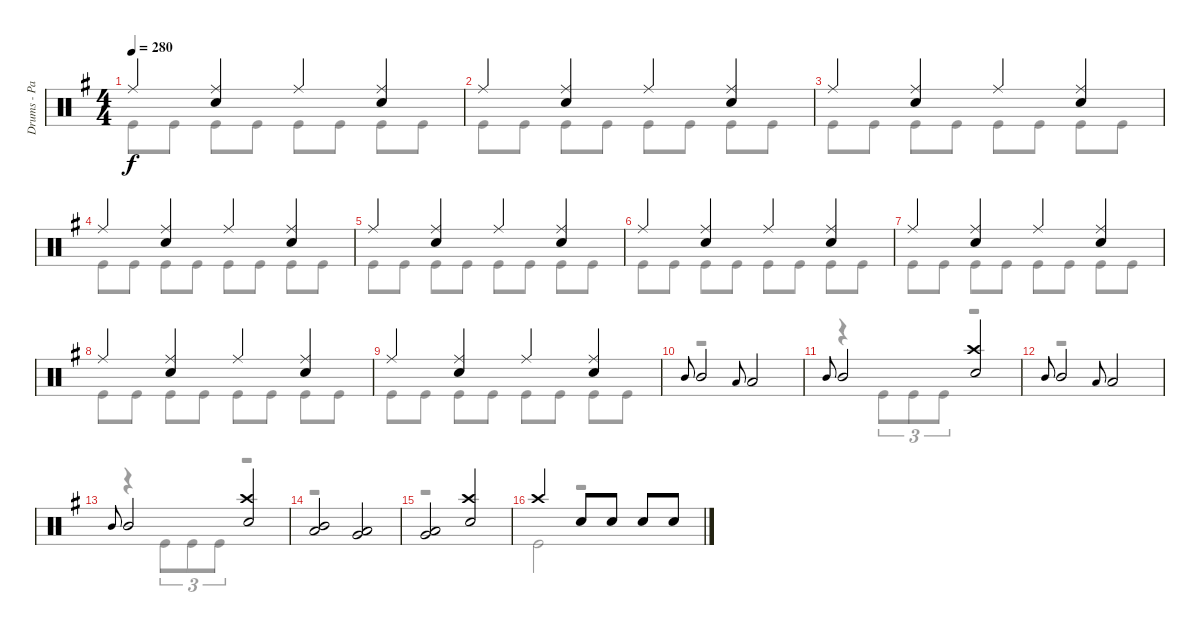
\track ("Drums - Patrick Johansson" "Drums - Pa") {instrument percussion}
\staff {score}
\articulation defaults
\voice
\ts (4 4)
\tempo 280
\clef neutral
\ks eminor "Ride (middle)".4{dy f}
("Ride (middle)" "Snare (hit) 2").4 "Ride (middle)".4 ("Ride (middle)" "Snare (hit) 2").4 |
"Ride (middle)".4 ("Ride (middle)" "Snare (hit) 2").4 "Ride (middle)".4 ("Ride (middle)" "Snare (hit) 2").4 |
"Ride (middle)".4 ("Ride (middle)" "Snare (hit) 2").4 "Ride (middle)".4 ("Ride (middle)" "Snare (hit) 2").4 |
"Ride (middle)".4 ("Ride (middle)" "Snare (hit) 2").4 "Ride (middle)".4 ("Ride (middle)" "Snare (hit) 2").4 |
"Ride (middle)".4 ("Ride (middle)" "Snare (hit) 2").4 "Ride (middle)".4 ("Ride (middle)" "Snare (hit) 2").4 |
"Ride (middle)".4 ("Ride (middle)" "Snare (hit) 2").4 "Ride (middle)".4 ("Ride (middle)" "Snare (hit) 2").4 |
"Ride (middle)".4 ("Ride (middle)" "Snare (hit) 2").4 "Ride (middle)".4 ("Ride (middle)" "Snare (hit) 2").4 |
"Ride (middle)".4 ("Ride (middle)" "Snare (hit) 2").4 "Ride (middle)".4 ("Ride (middle)" "Snare (hit) 2").4 |
"Ride (middle)".4 ("Ride (middle)" "Snare (hit) 2").4 "Ride (middle)".4 ("Ride (middle)" "Snare (hit) 2").4 |
"Mid Tom (hit)"{h}.8{gr onbeat} "Mid Tom (hit)".2 "Low Tom (hit)"{h}.8{gr onbeat} "Low Tom (hit)".2 |
"Mid Tom (hit)"{h}.8{gr onbeat} "Mid Tom (hit)".2 ("Crash high (hit)" "Snare (hit) 2").2 |
"Mid Tom (hit)"{h}.8{gr onbeat} "Mid Tom (hit)".2 "Low Tom (hit)"{h}.8{gr onbeat} "Low Tom (hit)".2 |
"Mid Tom (hit)"{h}.8{gr onbeat} "Mid Tom (hit)".2 ("Crash high (hit)" "Snare (hit) 2").2 |
("Low Tom (hit)" "Mid Tom (hit)").2 ("Low Tom (hit)" "Very Low Tom (hit)").2 |
("Low Tom (hit)" "Very Low Tom (hit)").2 ("Crash high (hit)" "Snare (hit) 2").2 |
"Crash high (hit)".2 "Snare (hit) 2".8 "Snare (hit) 2".8 "Snare (hit) 2".8 "Snare (hit) 2".8
\voice
\clef neutral
\ottava regular
\simile none
\ks eminor "Kick (hit)".8{dy f} "Kick (hit)".8 "Kick (hit)".8 "Kick (hit)".8 "Kick (hit)".8 "Kick (hit)".8 "Kick (hit)".8 "Kick (hit)".8
|
"Kick (hit)".8 "Kick (hit)".8 "Kick (hit)".8 "Kick (hit)".8 "Kick (hit)".8 "Kick (hit)".8 "Kick (hit)".8 "Kick (hit)".8 |
"Kick (hit)".8 "Kick (hit)".8 "Kick (hit)".8 "Kick (hit)".8 "Kick (hit)".8 "Kick (hit)".8 "Kick (hit)".8 "Kick (hit)".8 |
"Kick (hit)".8 "Kick (hit)".8 "Kick (hit)".8 "Kick (hit)".8 "Kick (hit)".8 "Kick (hit)".8 "Kick (hit)".8 "Kick (hit)".8 |
"Kick (hit)".8 "Kick (hit)".8 "Kick (hit)".8 "Kick (hit)".8 "Kick (hit)".8 "Kick (hit)".8 "Kick (hit)".8 "Kick (hit)".8 |
"Kick (hit)".8 "Kick (hit)".8 "Kick (hit)".8 "Kick (hit)".8 "Kick (hit)".8 "Kick (hit)".8 "Kick (hit)".8 "Kick (hit)".8 |
"Kick (hit)".8 "Kick (hit)".8 "Kick (hit)".8 "Kick (hit)".8 "Kick (hit)".8 "Kick (hit)".8 "Kick (hit)".8 "Kick (hit)".8 |
"Kick (hit)".8 "Kick (hit)".8 "Kick (hit)".8 "Kick (hit)".8 "Kick (hit)".8 "Kick (hit)".8 "Kick (hit)".8 "Kick (hit)".8 |
"Kick (hit)".8 "Kick (hit)".8 "Kick (hit)".8 "Kick (hit)".8 "Kick (hit)".8 "Kick (hit)".8 "Kick (hit)".8 "Kick (hit)".8 |
r.1 |
r.4 "Kick (hit)".8{tu (3 2)} "Kick (hit)".8{tu (3 2)} "Kick (hit)".8{tu (3 2)} r.2 |
r.1 |
r.4 "Kick (hit)".8{tu (3 2)} "Kick (hit)".8{tu (3 2)} "Kick (hit)".8{tu (3 2)} r.2 |
r.1 |
r.1 |
"Kick (hit)".2 r.2
